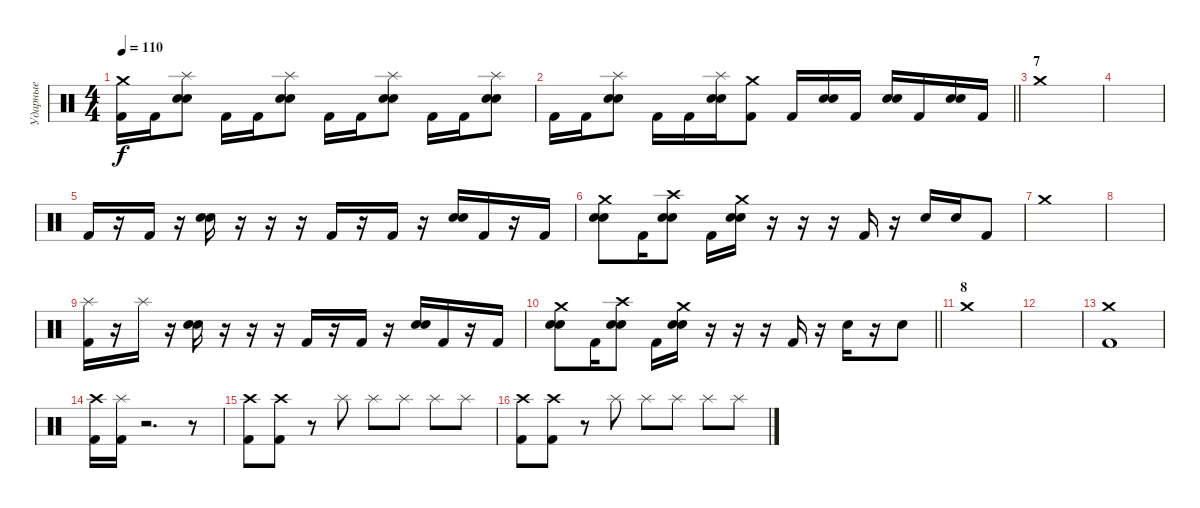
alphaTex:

\track ("Ударные" "Ударные") {instrument percussion}
\staff {score}
\articulation defaults
\ts (4 4)
\tempo 110
\clef neutral
\ks c
("Crash medium (hit)" "Kick (hit) 2").16{dy f} "Kick (hit) 2".16 ("Splash (hit)" "Electric Snare (hit)" "Snare (hit) 2").8 "Kick (hit) 2".16 "Kick (hit) 2".16 ("Splash (hit)" "Electric Snare (hit)" "Snare (hit) 2").8 "Kick (hit) 2".16 "Kick (hit) 2".16 ("Splash (hit)" "Electric Snare (hit)" "Snare (hit) 2").8 "Kick (hit) 2".16 "Kick (hit) 2".16 ("Splash (hit)" "Electric Snare (hit)" "Snare (hit) 2").8 |
\barLineRight lightlight "Kick (hit) 2".16 "Kick (hit) 2".16
("Splash (hit)" "Electric Snare (hit)" "Snare (hit) 2").8 "Kick (hit) 2".16 "Kick (hit) 2".16 ("Splash (hit)" "Electric Snare (hit)" "Snare (hit) 2").16 ("Crash medium (hit)" "Kick (hit) 2").8 "Kick (hit) 2".16 ("Electric Snare (hit)" "Snare (hit) 2").16 "Kick (hit) 2".16 ("Electric Snare (hit)" "Snare (hit) 2").16 "Kick (hit) 2".16 ("Electric Snare (hit)" "Snare (hit) 2").16 "Kick (hit) 2".16 |
\section ("" "7")
"Crash medium (hit)".1 |
|
"Kick (hit) 2".16 r.16 "Kick (hit) 2".16 r.16 ("Electric Snare (hit)" "Snare (hit) 2").16 r.16 r.16 r.16 "Kick (hit) 2".16 r.16 "Kick (hit) 2".16 r.16 ("Electric Snare (hit)" "Snare (hit) 2").16 "Kick (hit) 2".16 r.16 "Kick (hit) 2".16 |
("Crash medium (hit)" "Electric Snare (hit)" "Snare (hit) 2").8 "Kick (hit) 2".16 ("Crash high (hit)" "Electric Snare (hit)" "Snare (hit) 2").8 "Kick (hit) 2".16 ("Crash medium (hit)" "Electric Snare (hit)" "Snare (hit) 2").16 r.16 r.16 r.16 "Kick (hit) 2".16 r.16 "Electric Snare (hit)".16 "Electric Snare (hit)".16 "Kick (hit) 2".8 |
"Crash medium (hit)".1 |
|
("Splash (hit)" "Kick (hit) 2").16 r.16 "Splash (hit)".16 r.16 ("Electric Snare (hit)" "Snare (hit) 2").16 r.16 r.16 r.16 "Kick (hit) 2".16 r.16 "Kick (hit) 2".16 r.16 ("Electric Snare (hit)" "Snare (hit) 2").16 "Kick (hit) 2".16 r.16 "Kick (hit) 2".16 |
\barLineRight lightlight
("Crash medium (hit)" "Electric Snare (hit)" "Snare (hit) 2").8 "Kick (hit) 2".16 ("Crash high (hit)" "Electric Snare (hit)" "Snare (hit) 2").8 "Kick (hit) 2".16 ("Crash medium (hit)" "Electric Snare (hit)" "Snare (hit) 2").16 r.16 r.16 r.16 "Kick (hit) 2".16 r.16 "Electric Snare (hit)".16 r.16 "Electric Snare (hit)".8 |
\section ("" "8")
"Crash medium (hit)".1 |
|
("Crash medium (hit)" "Kick (hit) 2").1 |
("Crash high (hit)" "Kick (hit) 2").16 ("Splash (hit)" "Kick (hit) 2").16 r.2{d} r.8 |
("Crash high (hit)" "Kick (hit) 2").8 ("Crash high (hit)" "Kick (hit) 2").8 r.8 "Splash (hit)".8 "Splash (hit)".8 "Splash (hit)".8 "Splash (hit)".8 "Splash (hit)".8 |
("Crash high (hit)" "Kick (hit) 2").8 ("Crash high (hit)" "Kick (hit) 2").8 r.8 "Splash (hit)".8 "Splash (hit)".8 "Splash (hit)".8 "Splash (hit)".8 "Splash (hit)".8
